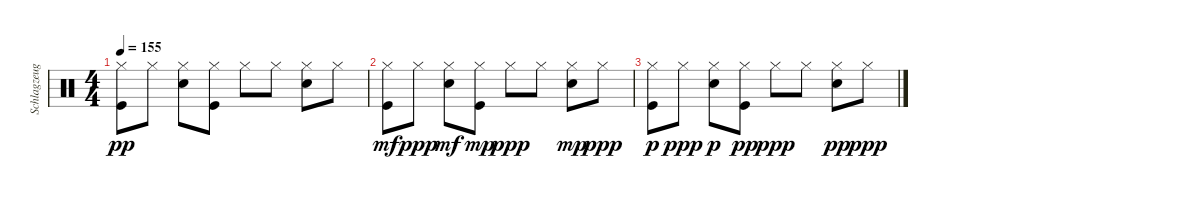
\track ("Schlagzeug" "Schlagzeug") {instrument percussion}
\staff {score}
\articulation defaults
\ts (4 4)
\tempo 155
\clef neutral
\ks c
("Hi-Hat (closed)" "Kick (hit)").8{dy pp} "Hi-Hat (closed)".8 ("Hi-Hat (closed)" "Electric Snare (hit)").8 ("Hi-Hat (closed)" "Kick (hit)").8 "Hi-Hat (closed)".8 "Hi-Hat (closed)".8 ("Hi-Hat (closed)" "Electric Snare (hit)").8 "Hi-Hat (closed)".8 |
("Hi-Hat (closed)" "Kick (hit)").8{dy mf} "Hi-Hat (closed)".8{dy ppp} ("Hi-Hat (closed)" "Electric Snare (hit)").8{dy mf} ("Hi-Hat (closed)" "Kick (hit)").8{dy mp} "Hi-Hat (closed)".8{dy ppp} "Hi-Hat (closed)".8 ("Hi-Hat (closed)" "Electric Snare (hit)").8{dy mp} "Hi-Hat (closed)".8{dy ppp} |
("Hi-Hat (closed)" "Kick (hit)").8{dy p} "Hi-Hat (closed)".8{dy ppp} ("Hi-Hat (closed)" "Electric Snare (hit)").8{dy p} ("Hi-Hat (closed)" "Kick (hit)").8{dy pp} "Hi-Hat (closed)".8{dy ppp} "Hi-Hat (closed)".8 ("Hi-Hat (closed)" "Electric Snare (hit)").8{dy pp} "Hi-Hat (closed)".8{dy ppp}
